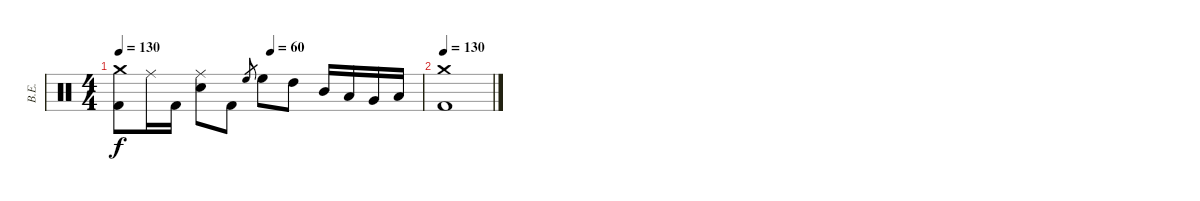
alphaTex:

\track ("В.Е." "В.Е.") {instrument percussion}
\staff {score}
\articulation defaults
\ts (4 4)
\tempo 130
\tempo (60 0.5)
\clef neutral
\ks c
("Kick (hit) 2" "Crash medium (hit)").8{dy f} "Ride (middle)".16 "Kick (hit) 2".16 ("Electric Snare (hit)" "Ride (middle)").8 "Kick (hit) 2".8 "High Floor Tom (hit)".8{gr} "High Floor Tom (hit)".8 "High Tom (hit)".8 "Mid Tom (hit)".16 "Low Tom (hit)".16 "Very Low Tom (hit)".16 "Low Floor Tom (hit)".16 |
\tempo 130
("Crash medium (hit)" "Kick (hit) 2").1
